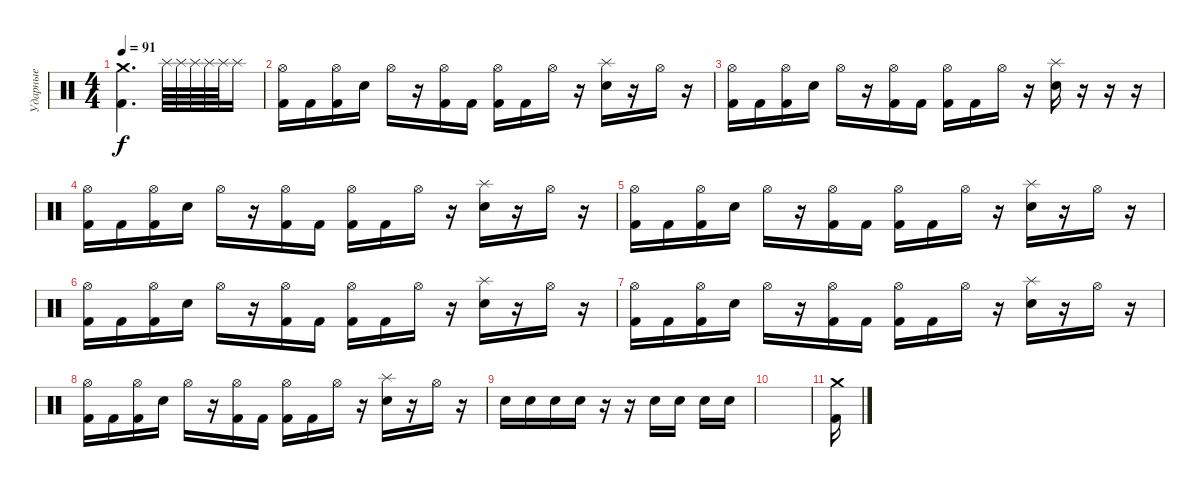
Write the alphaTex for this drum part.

\track ("Ударные" "Ударные") {instrument percussion}
\staff {score}
\articulation defaults
\ts (4 4)
\tempo 91
\clef neutral
\ks c
("Crash medium (hit)" "Kick (hit) 2").4{d dy f} "Splash (hit)".64 "Splash (hit)".64 "Splash (hit)".64 "Splash (hit)".64 "Splash (hit)".64 "Splash (hit)".16 |
("Hi-Hat (open)" "Kick (hit) 2").16 "Kick (hit) 2".16 ("Hi-Hat (open)" "Kick (hit) 2").16 "Snare (hit) 2".16 "Hi-Hat (open)".16 r.16 ("Hi-Hat (open)" "Kick (hit) 2").16 "Kick (hit) 2".16 ("Hi-Hat (open)" "Kick (hit) 2").16 "Kick (hit) 2".16 "Hi-Hat (open)".16 r.16 ("Splash (hit)" "Snare (hit) 2").16 r.16 "Hi-Hat (open)".16 r.16 |
("Hi-Hat (open)" "Kick (hit) 2").16 "Kick (hit) 2".16 ("Hi-Hat (open)" "Kick (hit) 2").16 "Snare (hit) 2".16 "Hi-Hat (open)".16 r.16 ("Hi-Hat (open)" "Kick (hit) 2").16 "Kick (hit) 2".16 ("Hi-Hat (open)" "Kick (hit) 2").16 "Kick (hit) 2".16 "Hi-Hat (open)".16 r.16 ("Splash (hit)" "Snare (hit) 2").16 r.16 r.16 r.16 |
("Hi-Hat (open)" "Kick (hit) 2").16 "Kick (hit) 2".16 ("Hi-Hat (open)" "Kick (hit) 2").16 "Snare (hit) 2".16 "Hi-Hat (open)".16 r.16 ("Hi-Hat (open)" "Kick (hit) 2").16 "Kick (hit) 2".16 ("Hi-Hat (open)" "Kick (hit) 2").16 "Kick (hit) 2".16 "Hi-Hat (open)".16 r.16 ("Splash (hit)" "Snare (hit) 2").16 r.16 "Hi-Hat (open)".16 r.16 |
("Hi-Hat (open)" "Kick (hit) 2").16 "Kick (hit) 2".16 ("Hi-Hat (open)" "Kick (hit) 2").16 "Snare (hit) 2".16 "Hi-Hat (open)".16 r.16 ("Hi-Hat (open)" "Kick (hit) 2").16 "Kick (hit) 2".16 ("Hi-Hat (open)" "Kick (hit) 2").16 "Kick (hit) 2".16 "Hi-Hat (open)".16 r.16 ("Splash (hit)" "Snare (hit) 2").16 r.16 "Hi-Hat (open)".16 r.16 |
("Hi-Hat (open)" "Kick (hit) 2").16 "Kick (hit) 2".16 ("Hi-Hat (open)" "Kick (hit) 2").16 "Snare (hit) 2".16 "Hi-Hat (open)".16 r.16 ("Hi-Hat (open)" "Kick (hit) 2").16 "Kick (hit) 2".16 ("Hi-Hat (open)" "Kick (hit) 2").16 "Kick (hit) 2".16 "Hi-Hat (open)".16 r.16 ("Splash (hit)" "Snare (hit) 2").16 r.16 "Hi-Hat (open)".16 r.16 |
("Hi-Hat (open)" "Kick (hit) 2").16 "Kick (hit) 2".16 ("Hi-Hat (open)" "Kick (hit) 2").16 "Snare (hit) 2".16 "Hi-Hat (open)".16 r.16 ("Hi-Hat (open)" "Kick (hit) 2").16 "Kick (hit) 2".16 ("Hi-Hat (open)" "Kick (hit) 2").16 "Kick (hit) 2".16 "Hi-Hat (open)".16 r.16 ("Splash (hit)" "Snare (hit) 2").16 r.16 "Hi-Hat (open)".16 r.16 |
("Hi-Hat (open)" "Kick (hit) 2").16 "Kick (hit) 2".16 ("Hi-Hat (open)" "Kick (hit) 2").16 "Snare (hit) 2".16 "Hi-Hat (open)".16 r.16 ("Hi-Hat (open)" "Kick (hit) 2").16 "Kick (hit) 2".16 ("Hi-Hat (open)" "Kick (hit) 2").16 "Kick (hit) 2".16 "Hi-Hat (open)".16 r.16 ("Splash (hit)" "Snare (hit) 2").16 r.16 "Hi-Hat (open)".16 r.16 |
"Snare (hit) 2".16 "Snare (hit) 2".16 "Snare (hit) 2".16 "Snare (hit) 2".16 r.16 r.16 "Snare (hit) 2".16 "Snare (hit) 2".16 "Snare (hit) 2".16 "Snare (hit) 2".16 |
|
("Kick (hit) 2" "Crash medium (hit)").16
